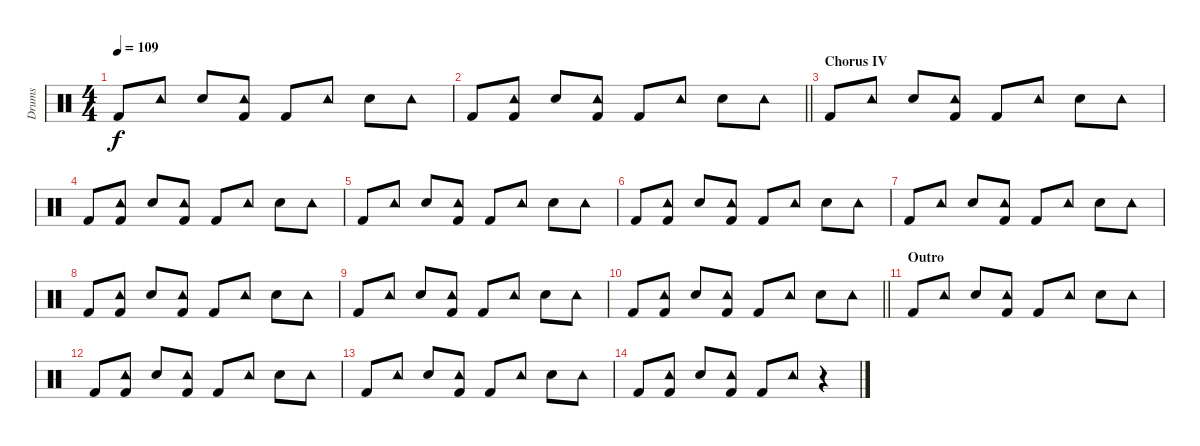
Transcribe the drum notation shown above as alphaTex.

\track ("Drums" "Drums") {instrument percussion}
\staff {score}
\articulation defaults
\ts (4 4)
\tempo 109
\clef neutral
\ks c "Kick (hit) 2".8{dy f} "Tambourine (hit)".8 "Snare (hit) 2".8
("Tambourine (hit)" "Kick (hit) 2").8 "Kick (hit) 2".8 "Tambourine (hit)".8 "Snare (hit) 2".8 "Tambourine (hit)".8 |
\barLineRight lightlight "Kick (hit) 2".8
("Tambourine (hit)" "Kick (hit) 2").8 "Snare (hit) 2".8 ("Tambourine (hit)" "Kick (hit) 2").8 "Kick (hit) 2".8 "Tambourine (hit)".8 "Snare (hit) 2".8 "Tambourine (hit)".8 |
\section ("" "Chorus IV")
"Kick (hit) 2".8 "Tambourine (hit)".8 "Snare (hit) 2".8 ("Tambourine (hit)" "Kick (hit) 2").8 "Kick (hit) 2".8 "Tambourine (hit)".8 "Snare (hit) 2".8 "Tambourine (hit)".8 |
"Kick (hit) 2".8 ("Tambourine (hit)" "Kick (hit) 2").8 "Snare (hit) 2".8 ("Tambourine (hit)" "Kick (hit) 2").8 "Kick (hit) 2".8 "Tambourine (hit)".8 "Snare (hit) 2".8 "Tambourine (hit)".8 |
"Kick (hit) 2".8 "Tambourine (hit)".8 "Snare (hit) 2".8 ("Tambourine (hit)" "Kick (hit) 2").8 "Kick (hit) 2".8 "Tambourine (hit)".8 "Snare (hit) 2".8 "Tambourine (hit)".8 |
"Kick (hit) 2".8 ("Tambourine (hit)" "Kick (hit) 2").8 "Snare (hit) 2".8 ("Tambourine (hit)" "Kick (hit) 2").8 "Kick (hit) 2".8 "Tambourine (hit)".8 "Snare (hit) 2".8 "Tambourine (hit)".8 |
"Kick (hit) 2".8 "Tambourine (hit)".8 "Snare (hit) 2".8 ("Tambourine (hit)" "Kick (hit) 2").8 "Kick (hit) 2".8 "Tambourine (hit)".8 "Snare (hit) 2".8 "Tambourine (hit)".8 |
"Kick (hit) 2".8 ("Tambourine (hit)" "Kick (hit) 2").8 "Snare (hit) 2".8 ("Tambourine (hit)" "Kick (hit) 2").8 "Kick (hit) 2".8 "Tambourine (hit)".8 "Snare (hit) 2".8 "Tambourine (hit)".8 |
"Kick (hit) 2".8 "Tambourine (hit)".8 "Snare (hit) 2".8 ("Tambourine (hit)" "Kick (hit) 2").8 "Kick (hit) 2".8 "Tambourine (hit)".8 "Snare (hit) 2".8 "Tambourine (hit)".8 |
\barLineRight lightlight "Kick (hit) 2".8
("Tambourine (hit)" "Kick (hit) 2").8 "Snare (hit) 2".8 ("Tambourine (hit)" "Kick (hit) 2").8 "Kick (hit) 2".8 "Tambourine (hit)".8 "Snare (hit) 2".8 "Tambourine (hit)".8 |
\section ("" "Outro")
"Kick (hit) 2".8 "Tambourine (hit)".8 "Snare (hit) 2".8 ("Tambourine (hit)" "Kick (hit) 2").8 "Kick (hit) 2".8 "Tambourine (hit)".8 "Snare (hit) 2".8 "Tambourine (hit)".8 |
"Kick (hit) 2".8 ("Tambourine (hit)" "Kick (hit) 2").8 "Snare (hit) 2".8 ("Tambourine (hit)" "Kick (hit) 2").8 "Kick (hit) 2".8 "Tambourine (hit)".8 "Snare (hit) 2".8 "Tambourine (hit)".8 |
"Kick (hit) 2".8 "Tambourine (hit)".8 "Snare (hit) 2".8 ("Tambourine (hit)" "Kick (hit) 2").8 "Kick (hit) 2".8 "Tambourine (hit)".8 "Snare (hit) 2".8 "Tambourine (hit)".8 |
"Kick (hit) 2".8 ("Tambourine (hit)" "Kick (hit) 2").8 "Snare (hit) 2".8 ("Tambourine (hit)" "Kick (hit) 2").8 "Kick (hit) 2".8 "Tambourine (hit)".8 r.4
